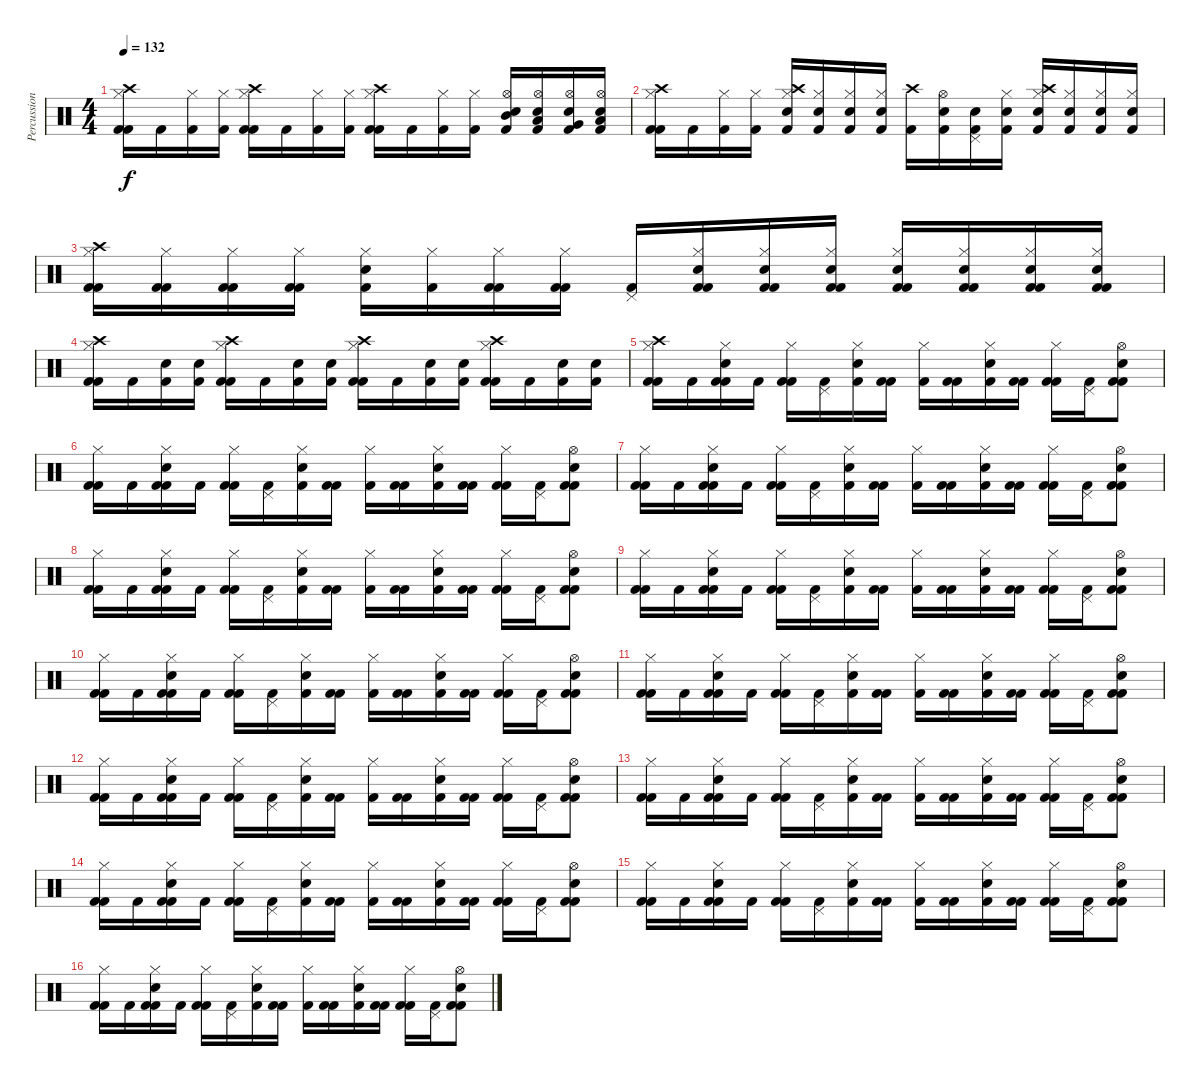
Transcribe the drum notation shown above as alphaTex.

\track ("Percussion" "Percussion") {instrument percussion}
\staff {score}
\articulation defaults
\ts (4 4)
\tempo 132
\clef neutral
\ks c
("Kick (hit) 2" "Hi-Hat (closed)" "Crash high (hit)" "Kick (hit) 2").16{dy f} "Kick (hit) 2".16 ("Hi-Hat (closed)" "Kick (hit) 2").16 ("Hi-Hat (closed)" "Kick (hit) 2").16 ("Kick (hit) 2" "Hi-Hat (closed)" "Crash high (hit)" "Kick (hit) 2").16 "Kick (hit) 2".16 ("Hi-Hat (closed)" "Kick (hit) 2").16 ("Hi-Hat (closed)" "Kick (hit) 2").16 ("Kick (hit) 2" "Hi-Hat (closed)" "Crash high (hit)" "Kick (hit) 2").16 "Kick (hit) 2".16 ("Hi-Hat (closed)" "Kick (hit) 2").16 ("Hi-Hat (closed)" "Kick (hit) 2").16 ("Snare (hit) 2" "Hi-Hat (open)" "Mid Tom (hit)" "Kick (hit) 2").16 ("Snare (hit) 2" "Low Tom (hit)" "Hi-Hat (open)" "Kick (hit) 2").16 ("Snare (hit) 2" "Very Low Tom (hit)" "Hi-Hat (open)" "Kick (hit) 2").16 ("Snare (hit) 2" "Low Floor Tom (hit)" "Hi-Hat (open)" "Kick (hit) 2").16 |
("Kick (hit) 2" "Hi-Hat (closed)" "Crash high (hit)" "Kick (hit) 2").16 "Kick (hit) 2".16 ("Hi-Hat (closed)" "Kick (hit) 2").16 ("Hi-Hat (closed)" "Kick (hit) 2").16 ("Snare (hit) 2" "Hi-Hat (closed)" "Crash high (hit)" "Kick (hit) 2").16 ("Snare (hit) 2" "Hi-Hat (closed)" "Kick (hit) 2").16 ("Snare (hit) 2" "Hi-Hat (closed)" "Kick (hit) 2").16 ("Snare (hit) 2" "Hi-Hat (closed)" "Kick (hit) 2").16 ("Crash high (hit)" "Kick (hit) 2").16 ("Snare (hit) 2" "Hi-Hat (open)" "Kick (hit) 2").16 ("Snare (hit) 2" "Pedal Hi-Hat (hit)" "Kick (hit) 2").16 ("Snare (hit) 2" "Hi-Hat (closed)" "Kick (hit) 2").16 ("Snare (hit) 2" "Hi-Hat (closed)" "Crash high (hit)" "Kick (hit) 2").16 ("Snare (hit) 2" "Hi-Hat (closed)" "Kick (hit) 2").16 ("Snare (hit) 2" "Hi-Hat (closed)" "Kick (hit) 2").16 ("Snare (hit) 2" "Hi-Hat (closed)" "Kick (hit) 2").16 |
("Kick (hit) 2" "Hi-Hat (closed)" "Crash high (hit)" "Kick (hit) 2").16 ("Kick (hit) 2" "Hi-Hat (closed)" "Kick (hit) 2").16 ("Kick (hit) 2" "Hi-Hat (closed)" "Kick (hit) 2").16 ("Kick (hit) 2" "Hi-Hat (closed)" "Kick (hit) 2").16 ("Snare (hit) 2" "Hi-Hat (closed)" "Kick (hit) 2").16 ("Hi-Hat (closed)" "Kick (hit) 2").16 ("Kick (hit) 2" "Hi-Hat (closed)" "Kick (hit) 2").16 ("Kick (hit) 2" "Hi-Hat (closed)" "Kick (hit) 2").16 ("Pedal Hi-Hat (hit)" "Kick (hit) 2").16 ("Kick (hit) 2" "Snare (hit) 2" "Hi-Hat (closed)" "Kick (hit) 2").16 ("Kick (hit) 2" "Snare (hit) 2" "Hi-Hat (closed)" "Kick (hit) 2").16 ("Kick (hit) 2" "Snare (hit) 2" "Hi-Hat (closed)" "Kick (hit) 2").16 ("Kick (hit) 2" "Snare (hit) 2" "Hi-Hat (closed)" "Kick (hit) 2").16 ("Kick (hit) 2" "Snare (hit) 2" "Hi-Hat (closed)" "Kick (hit) 2").16 ("Kick (hit) 2" "Snare (hit) 2" "Hi-Hat (closed)" "Kick (hit) 2").16 ("Kick (hit) 2" "Snare (hit) 2" "Hi-Hat (closed)" "Kick (hit) 2").16 |
("Kick (hit) 2" "Hi-Hat (closed)" "Crash high (hit)" "Kick (hit) 2").16 "Kick (hit) 2".16 ("Snare (hit) 2" "Kick (hit) 2").16 ("Snare (hit) 2" "Kick (hit) 2").16 ("Kick (hit) 2" "Hi-Hat (closed)" "Crash high (hit)" "Kick (hit) 2").16 "Kick (hit) 2".16 ("Snare (hit) 2" "Kick (hit) 2").16 ("Snare (hit) 2" "Kick (hit) 2").16 ("Kick (hit) 2" "Hi-Hat (closed)" "Crash high (hit)" "Kick (hit) 2").16 "Kick (hit) 2".16 ("Snare (hit) 2" "Kick (hit) 2").16 ("Snare (hit) 2" "Kick (hit) 2").16 ("Kick (hit) 2" "Hi-Hat (closed)" "Crash high (hit)" "Kick (hit) 2").16 "Kick (hit) 2".16 ("Snare (hit) 2" "Kick (hit) 2").16 ("Snare (hit) 2" "Kick (hit) 2").16 |
("Kick (hit) 2" "Hi-Hat (closed)" "Crash high (hit)" "Kick (hit) 2").16 "Kick (hit) 2".16 ("Kick (hit) 2" "Snare (hit) 2" "Hi-Hat (closed)" "Kick (hit) 2").16 "Kick (hit) 2".16 ("Kick (hit) 2" "Hi-Hat (closed)" "Kick (hit) 2").16 ("Pedal Hi-Hat (hit)" "Kick (hit) 2").16 ("Snare (hit) 2" "Hi-Hat (closed)" "Kick (hit) 2").16 ("Kick (hit) 2" "Kick (hit) 2").16 ("Hi-Hat (closed)" "Kick (hit) 2").16 ("Kick (hit) 2" "Kick (hit) 2").16 ("Snare (hit) 2" "Hi-Hat (closed)" "Kick (hit) 2").16 ("Kick (hit) 2" "Kick (hit) 2").16 ("Kick (hit) 2" "Hi-Hat (closed)" "Kick (hit) 2").16 ("Pedal Hi-Hat (hit)" "Kick (hit) 2").16 ("Kick (hit) 2" "Snare (hit) 2" "Hi-Hat (open)" "Kick (hit) 2").8 |
("Kick (hit) 2" "Hi-Hat (closed)" "Kick (hit) 2").16 "Kick (hit) 2".16 ("Kick (hit) 2" "Snare (hit) 2" "Hi-Hat (closed)" "Kick (hit) 2").16 "Kick (hit) 2".16 ("Kick (hit) 2" "Hi-Hat (closed)" "Kick (hit) 2").16 ("Pedal Hi-Hat (hit)" "Kick (hit) 2").16 ("Snare (hit) 2" "Hi-Hat (closed)" "Kick (hit) 2").16 ("Kick (hit) 2" "Kick (hit) 2").16 ("Hi-Hat (closed)" "Kick (hit) 2").16 ("Kick (hit) 2" "Kick (hit) 2").16 ("Snare (hit) 2" "Hi-Hat (closed)" "Kick (hit) 2").16 ("Kick (hit) 2" "Kick (hit) 2").16 ("Kick (hit) 2" "Hi-Hat (closed)" "Kick (hit) 2").16 ("Pedal Hi-Hat (hit)" "Kick (hit) 2").16 ("Kick (hit) 2" "Snare (hit) 2" "Hi-Hat (open)" "Kick (hit) 2").8 |
("Kick (hit) 2" "Hi-Hat (closed)" "Kick (hit) 2").16 "Kick (hit) 2".16 ("Kick (hit) 2" "Snare (hit) 2" "Hi-Hat (closed)" "Kick (hit) 2").16 "Kick (hit) 2".16 ("Kick (hit) 2" "Hi-Hat (closed)" "Kick (hit) 2").16 ("Pedal Hi-Hat (hit)" "Kick (hit) 2").16 ("Snare (hit) 2" "Hi-Hat (closed)" "Kick (hit) 2").16 ("Kick (hit) 2" "Kick (hit) 2").16 ("Hi-Hat (closed)" "Kick (hit) 2").16 ("Kick (hit) 2" "Kick (hit) 2").16 ("Snare (hit) 2" "Hi-Hat (closed)" "Kick (hit) 2").16 ("Kick (hit) 2" "Kick (hit) 2").16 ("Kick (hit) 2" "Hi-Hat (closed)" "Kick (hit) 2").16 ("Pedal Hi-Hat (hit)" "Kick (hit) 2").16 ("Kick (hit) 2" "Snare (hit) 2" "Hi-Hat (open)" "Kick (hit) 2").8 |
("Kick (hit) 2" "Hi-Hat (closed)" "Kick (hit) 2").16 "Kick (hit) 2".16 ("Kick (hit) 2" "Snare (hit) 2" "Hi-Hat (closed)" "Kick (hit) 2").16 "Kick (hit) 2".16 ("Kick (hit) 2" "Hi-Hat (closed)" "Kick (hit) 2").16 ("Pedal Hi-Hat (hit)" "Kick (hit) 2").16 ("Snare (hit) 2" "Hi-Hat (closed)" "Kick (hit) 2").16 ("Kick (hit) 2" "Kick (hit) 2").16 ("Hi-Hat (closed)" "Kick (hit) 2").16 ("Kick (hit) 2" "Kick (hit) 2").16 ("Snare (hit) 2" "Hi-Hat (closed)" "Kick (hit) 2").16 ("Kick (hit) 2" "Kick (hit) 2").16 ("Kick (hit) 2" "Hi-Hat (closed)" "Kick (hit) 2").16 ("Pedal Hi-Hat (hit)" "Kick (hit) 2").16 ("Kick (hit) 2" "Snare (hit) 2" "Hi-Hat (open)" "Kick (hit) 2").8 |
("Kick (hit) 2" "Hi-Hat (closed)" "Kick (hit) 2").16 "Kick (hit) 2".16 ("Kick (hit) 2" "Snare (hit) 2" "Hi-Hat (closed)" "Kick (hit) 2").16 "Kick (hit) 2".16 ("Kick (hit) 2" "Hi-Hat (closed)" "Kick (hit) 2").16 ("Pedal Hi-Hat (hit)" "Kick (hit) 2").16 ("Snare (hit) 2" "Hi-Hat (closed)" "Kick (hit) 2").16 ("Kick (hit) 2" "Kick (hit) 2").16 ("Hi-Hat (closed)" "Kick (hit) 2").16 ("Kick (hit) 2" "Kick (hit) 2").16 ("Snare (hit) 2" "Hi-Hat (closed)" "Kick (hit) 2").16 ("Kick (hit) 2" "Kick (hit) 2").16 ("Kick (hit) 2" "Hi-Hat (closed)" "Kick (hit) 2").16 ("Pedal Hi-Hat (hit)" "Kick (hit) 2").16 ("Kick (hit) 2" "Snare (hit) 2" "Hi-Hat (open)" "Kick (hit) 2").8 |
("Kick (hit) 2" "Hi-Hat (closed)" "Kick (hit) 2").16 "Kick (hit) 2".16 ("Kick (hit) 2" "Snare (hit) 2" "Hi-Hat (closed)" "Kick (hit) 2").16 "Kick (hit) 2".16 ("Kick (hit) 2" "Hi-Hat (closed)" "Kick (hit) 2").16 ("Pedal Hi-Hat (hit)" "Kick (hit) 2").16 ("Snare (hit) 2" "Hi-Hat (closed)" "Kick (hit) 2").16 ("Kick (hit) 2" "Kick (hit) 2").16 ("Hi-Hat (closed)" "Kick (hit) 2").16 ("Kick (hit) 2" "Kick (hit) 2").16 ("Snare (hit) 2" "Hi-Hat (closed)" "Kick (hit) 2").16 ("Kick (hit) 2" "Kick (hit) 2").16 ("Kick (hit) 2" "Hi-Hat (closed)" "Kick (hit) 2").16 ("Pedal Hi-Hat (hit)" "Kick (hit) 2").16 ("Kick (hit) 2" "Snare (hit) 2" "Hi-Hat (open)" "Kick (hit) 2").8 |
("Kick (hit) 2" "Hi-Hat (closed)" "Kick (hit) 2").16 "Kick (hit) 2".16 ("Kick (hit) 2" "Snare (hit) 2" "Hi-Hat (closed)" "Kick (hit) 2").16 "Kick (hit) 2".16 ("Kick (hit) 2" "Hi-Hat (closed)" "Kick (hit) 2").16 ("Pedal Hi-Hat (hit)" "Kick (hit) 2").16 ("Snare (hit) 2" "Hi-Hat (closed)" "Kick (hit) 2").16 ("Kick (hit) 2" "Kick (hit) 2").16 ("Hi-Hat (closed)" "Kick (hit) 2").16 ("Kick (hit) 2" "Kick (hit) 2").16 ("Snare (hit) 2" "Hi-Hat (closed)" "Kick (hit) 2").16 ("Kick (hit) 2" "Kick (hit) 2").16 ("Kick (hit) 2" "Hi-Hat (closed)" "Kick (hit) 2").16 ("Pedal Hi-Hat (hit)" "Kick (hit) 2").16 ("Kick (hit) 2" "Snare (hit) 2" "Hi-Hat (open)" "Kick (hit) 2").8 |
("Kick (hit) 2" "Hi-Hat (closed)" "Kick (hit) 2").16 "Kick (hit) 2".16 ("Kick (hit) 2" "Snare (hit) 2" "Hi-Hat (closed)" "Kick (hit) 2").16 "Kick (hit) 2".16 ("Kick (hit) 2" "Hi-Hat (closed)" "Kick (hit) 2").16 ("Pedal Hi-Hat (hit)" "Kick (hit) 2").16 ("Snare (hit) 2" "Hi-Hat (closed)" "Kick (hit) 2").16 ("Kick (hit) 2" "Kick (hit) 2").16 ("Hi-Hat (closed)" "Kick (hit) 2").16 ("Kick (hit) 2" "Kick (hit) 2").16 ("Snare (hit) 2" "Hi-Hat (closed)" "Kick (hit) 2").16 ("Kick (hit) 2" "Kick (hit) 2").16 ("Kick (hit) 2" "Hi-Hat (closed)" "Kick (hit) 2").16 ("Pedal Hi-Hat (hit)" "Kick (hit) 2").16 ("Kick (hit) 2" "Snare (hit) 2" "Hi-Hat (open)" "Kick (hit) 2").8 |
("Kick (hit) 2" "Hi-Hat (closed)" "Kick (hit) 2").16 "Kick (hit) 2".16 ("Kick (hit) 2" "Snare (hit) 2" "Hi-Hat (closed)" "Kick (hit) 2").16 "Kick (hit) 2".16 ("Kick (hit) 2" "Hi-Hat (closed)" "Kick (hit) 2").16 ("Pedal Hi-Hat (hit)" "Kick (hit) 2").16 ("Snare (hit) 2" "Hi-Hat (closed)" "Kick (hit) 2").16 ("Kick (hit) 2" "Kick (hit) 2").16 ("Hi-Hat (closed)" "Kick (hit) 2").16 ("Kick (hit) 2" "Kick (hit) 2").16 ("Snare (hit) 2" "Hi-Hat (closed)" "Kick (hit) 2").16 ("Kick (hit) 2" "Kick (hit) 2").16 ("Kick (hit) 2" "Hi-Hat (closed)" "Kick (hit) 2").16 ("Pedal Hi-Hat (hit)" "Kick (hit) 2").16 ("Kick (hit) 2" "Snare (hit) 2" "Hi-Hat (open)" "Kick (hit) 2").8 |
("Kick (hit) 2" "Hi-Hat (closed)" "Kick (hit) 2").16 "Kick (hit) 2".16 ("Kick (hit) 2" "Snare (hit) 2" "Hi-Hat (closed)" "Kick (hit) 2").16 "Kick (hit) 2".16 ("Kick (hit) 2" "Hi-Hat (closed)" "Kick (hit) 2").16 ("Pedal Hi-Hat (hit)" "Kick (hit) 2").16 ("Snare (hit) 2" "Hi-Hat (closed)" "Kick (hit) 2").16 ("Kick (hit) 2" "Kick (hit) 2").16 ("Hi-Hat (closed)" "Kick (hit) 2").16 ("Kick (hit) 2" "Kick (hit) 2").16 ("Snare (hit) 2" "Hi-Hat (closed)" "Kick (hit) 2").16 ("Kick (hit) 2" "Kick (hit) 2").16 ("Kick (hit) 2" "Hi-Hat (closed)" "Kick (hit) 2").16 ("Pedal Hi-Hat (hit)" "Kick (hit) 2").16 ("Kick (hit) 2" "Snare (hit) 2" "Hi-Hat (open)" "Kick (hit) 2").8 |
("Kick (hit) 2" "Hi-Hat (closed)" "Kick (hit) 2").16 "Kick (hit) 2".16 ("Kick (hit) 2" "Snare (hit) 2" "Hi-Hat (closed)" "Kick (hit) 2").16 "Kick (hit) 2".16 ("Kick (hit) 2" "Hi-Hat (closed)" "Kick (hit) 2").16 ("Pedal Hi-Hat (hit)" "Kick (hit) 2").16 ("Snare (hit) 2" "Hi-Hat (closed)" "Kick (hit) 2").16 ("Kick (hit) 2" "Kick (hit) 2").16 ("Hi-Hat (closed)" "Kick (hit) 2").16 ("Kick (hit) 2" "Kick (hit) 2").16 ("Snare (hit) 2" "Hi-Hat (closed)" "Kick (hit) 2").16 ("Kick (hit) 2" "Kick (hit) 2").16 ("Kick (hit) 2" "Hi-Hat (closed)" "Kick (hit) 2").16 ("Pedal Hi-Hat (hit)" "Kick (hit) 2").16 ("Kick (hit) 2" "Snare (hit) 2" "Hi-Hat (open)" "Kick (hit) 2").8 |
("Kick (hit) 2" "Hi-Hat (closed)" "Kick (hit) 2").16 "Kick (hit) 2".16 ("Kick (hit) 2" "Snare (hit) 2" "Hi-Hat (closed)" "Kick (hit) 2").16 "Kick (hit) 2".16 ("Kick (hit) 2" "Hi-Hat (closed)" "Kick (hit) 2").16 ("Pedal Hi-Hat (hit)" "Kick (hit) 2").16 ("Snare (hit) 2" "Hi-Hat (closed)" "Kick (hit) 2").16 ("Kick (hit) 2" "Kick (hit) 2").16 ("Hi-Hat (closed)" "Kick (hit) 2").16 ("Kick (hit) 2" "Kick (hit) 2").16 ("Snare (hit) 2" "Hi-Hat (closed)" "Kick (hit) 2").16 ("Kick (hit) 2" "Kick (hit) 2").16 ("Kick (hit) 2" "Hi-Hat (closed)" "Kick (hit) 2").16 ("Pedal Hi-Hat (hit)" "Kick (hit) 2").16 ("Kick (hit) 2" "Snare (hit) 2" "Hi-Hat (open)" "Kick (hit) 2").8
